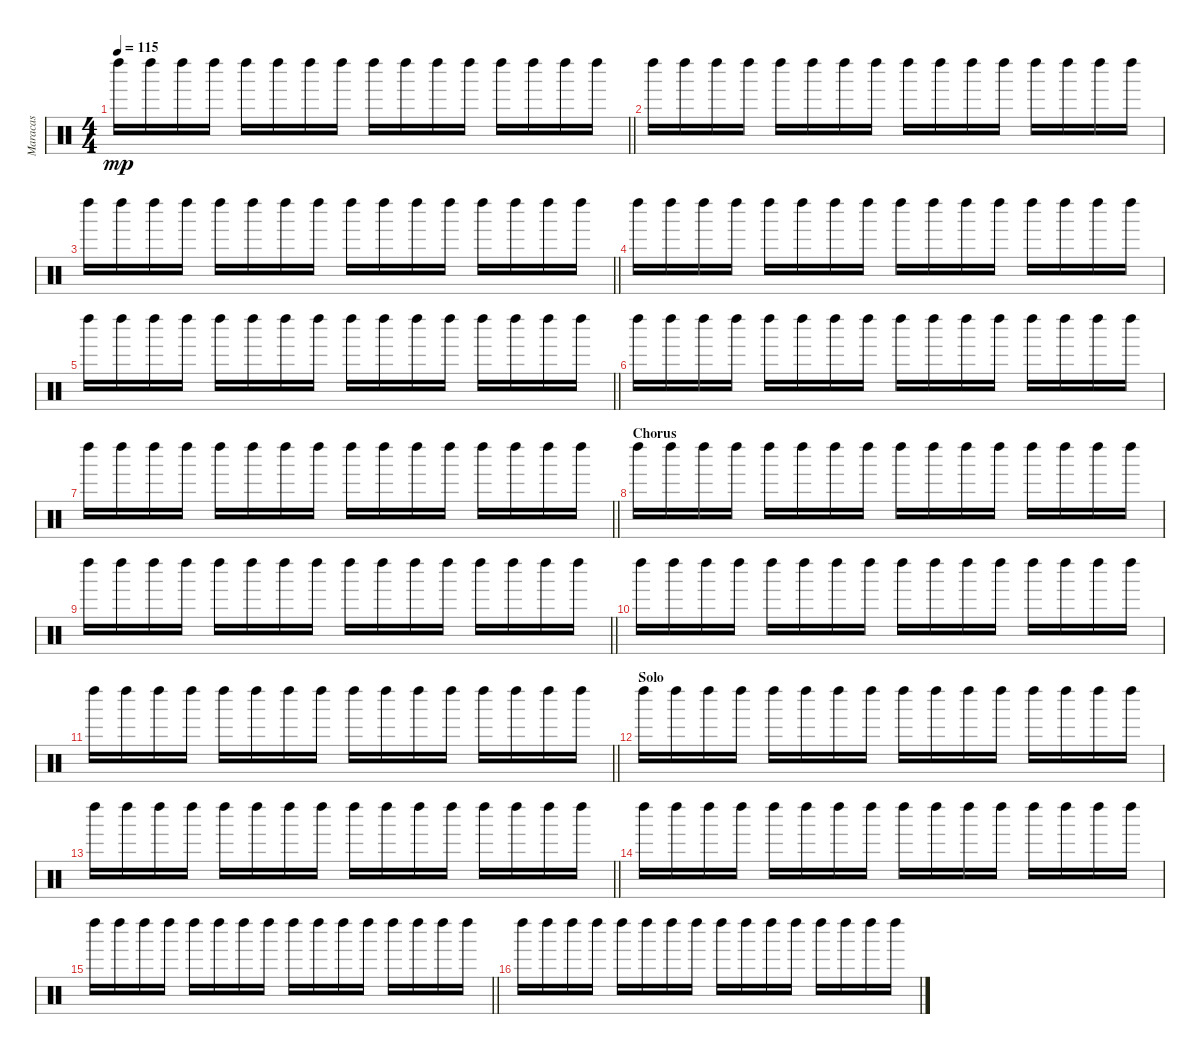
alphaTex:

\track ("Maracas" "Maracas") {instrument percussion}
\staff {score}
\articulation defaults
\ts (4 4)
\tempo 115
\clef neutral
\barLineRight lightlight
\ks c "Left Maraca (hit)".16{dy mp} "Left Maraca (hit)".16 "Left Maraca (hit)".16 "Left Maraca (hit)".16 "Left Maraca (hit)".16 "Left Maraca (hit)".16 "Left Maraca (hit)".16 "Left Maraca (hit)".16 "Left Maraca (hit)".16 "Left Maraca (hit)".16 "Left Maraca (hit)".16 "Left Maraca (hit)".16 "Left Maraca (hit)".16 "Left Maraca (hit)".16 "Left Maraca (hit)".16 "Left Maraca (hit)".16
|
"Left Maraca (hit)".16 "Left Maraca (hit)".16 "Left Maraca (hit)".16 "Left Maraca (hit)".16 "Left Maraca (hit)".16 "Left Maraca (hit)".16 "Left Maraca (hit)".16 "Left Maraca (hit)".16 "Left Maraca (hit)".16 "Left Maraca (hit)".16 "Left Maraca (hit)".16 "Left Maraca (hit)".16 "Left Maraca (hit)".16 "Left Maraca (hit)".16 "Left Maraca (hit)".16 "Left Maraca (hit)".16 |
\barLineRight lightlight "Left Maraca (hit)".16 "Left Maraca (hit)".16 "Left Maraca (hit)".16 "Left Maraca (hit)".16 "Left Maraca (hit)".16 "Left Maraca (hit)".16 "Left Maraca (hit)".16 "Left Maraca (hit)".16 "Left Maraca (hit)".16 "Left Maraca (hit)".16 "Left Maraca (hit)".16 "Left Maraca (hit)".16 "Left Maraca (hit)".16 "Left Maraca (hit)".16 "Left Maraca (hit)".16 "Left Maraca (hit)".16
|
"Left Maraca (hit)".16 "Left Maraca (hit)".16 "Left Maraca (hit)".16 "Left Maraca (hit)".16 "Left Maraca (hit)".16 "Left Maraca (hit)".16 "Left Maraca (hit)".16 "Left Maraca (hit)".16 "Left Maraca (hit)".16 "Left Maraca (hit)".16 "Left Maraca (hit)".16 "Left Maraca (hit)".16 "Left Maraca (hit)".16 "Left Maraca (hit)".16 "Left Maraca (hit)".16 "Left Maraca (hit)".16 |
\barLineRight lightlight "Left Maraca (hit)".16 "Left Maraca (hit)".16 "Left Maraca (hit)".16 "Left Maraca (hit)".16 "Left Maraca (hit)".16 "Left Maraca (hit)".16 "Left Maraca (hit)".16 "Left Maraca (hit)".16 "Left Maraca (hit)".16 "Left Maraca (hit)".16 "Left Maraca (hit)".16 "Left Maraca (hit)".16 "Left Maraca (hit)".16 "Left Maraca (hit)".16 "Left Maraca (hit)".16 "Left Maraca (hit)".16
|
"Left Maraca (hit)".16 "Left Maraca (hit)".16 "Left Maraca (hit)".16 "Left Maraca (hit)".16 "Left Maraca (hit)".16 "Left Maraca (hit)".16 "Left Maraca (hit)".16 "Left Maraca (hit)".16 "Left Maraca (hit)".16 "Left Maraca (hit)".16 "Left Maraca (hit)".16 "Left Maraca (hit)".16 "Left Maraca (hit)".16 "Left Maraca (hit)".16 "Left Maraca (hit)".16 "Left Maraca (hit)".16 |
\barLineRight lightlight "Left Maraca (hit)".16 "Left Maraca (hit)".16 "Left Maraca (hit)".16 "Left Maraca (hit)".16 "Left Maraca (hit)".16 "Left Maraca (hit)".16 "Left Maraca (hit)".16 "Left Maraca (hit)".16 "Left Maraca (hit)".16 "Left Maraca (hit)".16 "Left Maraca (hit)".16 "Left Maraca (hit)".16 "Left Maraca (hit)".16 "Left Maraca (hit)".16 "Left Maraca (hit)".16 "Left Maraca (hit)".16
|
\section ("" "Chorus")
"Left Maraca (hit)".16 "Left Maraca (hit)".16 "Left Maraca (hit)".16 "Left Maraca (hit)".16 "Left Maraca (hit)".16 "Left Maraca (hit)".16 "Left Maraca (hit)".16 "Left Maraca (hit)".16 "Left Maraca (hit)".16 "Left Maraca (hit)".16 "Left Maraca (hit)".16 "Left Maraca (hit)".16 "Left Maraca (hit)".16 "Left Maraca (hit)".16 "Left Maraca (hit)".16 "Left Maraca (hit)".16 |
\barLineRight lightlight "Left Maraca (hit)".16 "Left Maraca (hit)".16 "Left Maraca (hit)".16 "Left Maraca (hit)".16 "Left Maraca (hit)".16 "Left Maraca (hit)".16 "Left Maraca (hit)".16 "Left Maraca (hit)".16 "Left Maraca (hit)".16 "Left Maraca (hit)".16 "Left Maraca (hit)".16 "Left Maraca (hit)".16 "Left Maraca (hit)".16 "Left Maraca (hit)".16 "Left Maraca (hit)".16 "Left Maraca (hit)".16
|
"Left Maraca (hit)".16 "Left Maraca (hit)".16 "Left Maraca (hit)".16 "Left Maraca (hit)".16 "Left Maraca (hit)".16 "Left Maraca (hit)".16 "Left Maraca (hit)".16 "Left Maraca (hit)".16 "Left Maraca (hit)".16 "Left Maraca (hit)".16 "Left Maraca (hit)".16 "Left Maraca (hit)".16 "Left Maraca (hit)".16 "Left Maraca (hit)".16 "Left Maraca (hit)".16 "Left Maraca (hit)".16 |
\barLineRight lightlight "Left Maraca (hit)".16 "Left Maraca (hit)".16 "Left Maraca (hit)".16 "Left Maraca (hit)".16 "Left Maraca (hit)".16 "Left Maraca (hit)".16 "Left Maraca (hit)".16 "Left Maraca (hit)".16 "Left Maraca (hit)".16 "Left Maraca (hit)".16 "Left Maraca (hit)".16 "Left Maraca (hit)".16 "Left Maraca (hit)".16 "Left Maraca (hit)".16 "Left Maraca (hit)".16 "Left Maraca (hit)".16
|
\section ("" "Solo")
"Left Maraca (hit)".16 "Left Maraca (hit)".16 "Left Maraca (hit)".16 "Left Maraca (hit)".16 "Left Maraca (hit)".16 "Left Maraca (hit)".16 "Left Maraca (hit)".16 "Left Maraca (hit)".16 "Left Maraca (hit)".16 "Left Maraca (hit)".16 "Left Maraca (hit)".16 "Left Maraca (hit)".16 "Left Maraca (hit)".16 "Left Maraca (hit)".16 "Left Maraca (hit)".16 "Left Maraca (hit)".16 |
\barLineRight lightlight "Left Maraca (hit)".16 "Left Maraca (hit)".16 "Left Maraca (hit)".16 "Left Maraca (hit)".16 "Left Maraca (hit)".16 "Left Maraca (hit)".16 "Left Maraca (hit)".16 "Left Maraca (hit)".16 "Left Maraca (hit)".16 "Left Maraca (hit)".16 "Left Maraca (hit)".16 "Left Maraca (hit)".16 "Left Maraca (hit)".16 "Left Maraca (hit)".16 "Left Maraca (hit)".16 "Left Maraca (hit)".16
|
"Left Maraca (hit)".16 "Left Maraca (hit)".16 "Left Maraca (hit)".16 "Left Maraca (hit)".16 "Left Maraca (hit)".16 "Left Maraca (hit)".16 "Left Maraca (hit)".16 "Left Maraca (hit)".16 "Left Maraca (hit)".16 "Left Maraca (hit)".16 "Left Maraca (hit)".16 "Left Maraca (hit)".16 "Left Maraca (hit)".16 "Left Maraca (hit)".16 "Left Maraca (hit)".16 "Left Maraca (hit)".16 |
\barLineRight lightlight "Left Maraca (hit)".16 "Left Maraca (hit)".16 "Left Maraca (hit)".16 "Left Maraca (hit)".16 "Left Maraca (hit)".16 "Left Maraca (hit)".16 "Left Maraca (hit)".16 "Left Maraca (hit)".16 "Left Maraca (hit)".16 "Left Maraca (hit)".16 "Left Maraca (hit)".16 "Left Maraca (hit)".16 "Left Maraca (hit)".16 "Left Maraca (hit)".16 "Left Maraca (hit)".16 "Left Maraca (hit)".16
|
"Left Maraca (hit)".16 "Left Maraca (hit)".16 "Left Maraca (hit)".16 "Left Maraca (hit)".16 "Left Maraca (hit)".16 "Left Maraca (hit)".16 "Left Maraca (hit)".16 "Left Maraca (hit)".16 "Left Maraca (hit)".16 "Left Maraca (hit)".16 "Left Maraca (hit)".16 "Left Maraca (hit)".16 "Left Maraca (hit)".16 "Left Maraca (hit)".16 "Left Maraca (hit)".16 "Left Maraca (hit)".16
